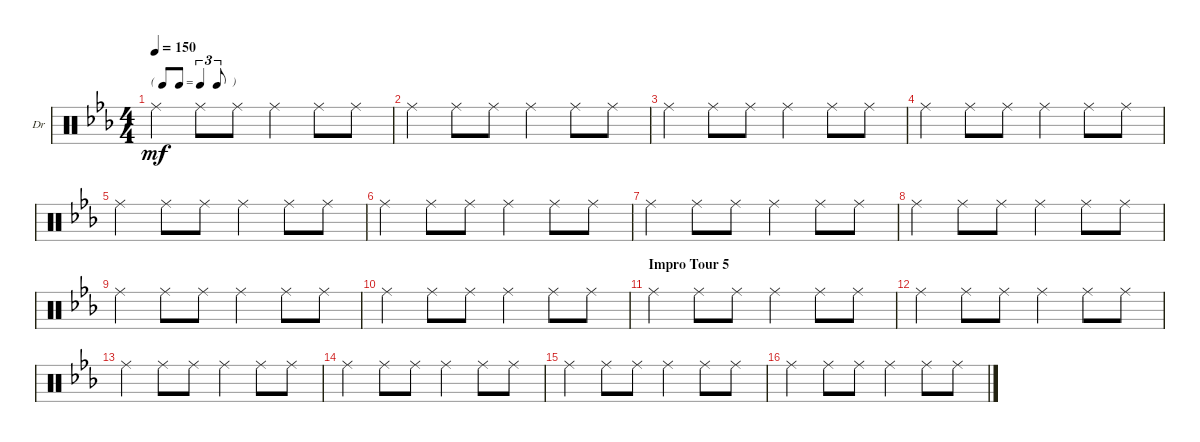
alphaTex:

\defaultSystemsLayout 4
\bracketExtendMode nobrackets
\firstSystemTrackNameOrientation horizontal
\otherSystemsTrackNameOrientation horizontal
\chordDiagramsInScore
\track ("Drums" "Dr") {instrument percussion}
\staff {score}
\articulation defaults
\ts (4 4)
\tf triplet8th
\tempo 150
\clef neutral
\ks cminor "Ride (middle)".4{dy mf} "Ride (middle)".8 "Ride (middle)".8 "Ride (middle)".4 "Ride (middle)".8 "Ride (middle)".8
|
"Ride (middle)".4 "Ride (middle)".8 "Ride (middle)".8 "Ride (middle)".4 "Ride (middle)".8 "Ride (middle)".8 |
"Ride (middle)".4 "Ride (middle)".8 "Ride (middle)".8 "Ride (middle)".4 "Ride (middle)".8 "Ride (middle)".8 |
"Ride (middle)".4 "Ride (middle)".8 "Ride (middle)".8 "Ride (middle)".4 "Ride (middle)".8 "Ride (middle)".8 |
"Ride (middle)".4 "Ride (middle)".8 "Ride (middle)".8 "Ride (middle)".4 "Ride (middle)".8 "Ride (middle)".8 |
"Ride (middle)".4 "Ride (middle)".8 "Ride (middle)".8 "Ride (middle)".4 "Ride (middle)".8 "Ride (middle)".8 |
"Ride (middle)".4 "Ride (middle)".8 "Ride (middle)".8 "Ride (middle)".4 "Ride (middle)".8 "Ride (middle)".8 |
"Ride (middle)".4 "Ride (middle)".8 "Ride (middle)".8 "Ride (middle)".4 "Ride (middle)".8 "Ride (middle)".8 |
"Ride (middle)".4 "Ride (middle)".8 "Ride (middle)".8 "Ride (middle)".4 "Ride (middle)".8 "Ride (middle)".8 |
"Ride (middle)".4 "Ride (middle)".8 "Ride (middle)".8 "Ride (middle)".4 "Ride (middle)".8 "Ride (middle)".8 |
\section ("" "Impro Tour 5")
"Ride (middle)".4 "Ride (middle)".8 "Ride (middle)".8 "Ride (middle)".4 "Ride (middle)".8 "Ride (middle)".8 |
"Ride (middle)".4 "Ride (middle)".8 "Ride (middle)".8 "Ride (middle)".4 "Ride (middle)".8 "Ride (middle)".8 |
"Ride (middle)".4 "Ride (middle)".8 "Ride (middle)".8 "Ride (middle)".4 "Ride (middle)".8 "Ride (middle)".8 |
"Ride (middle)".4 "Ride (middle)".8 "Ride (middle)".8 "Ride (middle)".4 "Ride (middle)".8 "Ride (middle)".8 |
"Ride (middle)".4 "Ride (middle)".8 "Ride (middle)".8 "Ride (middle)".4 "Ride (middle)".8 "Ride (middle)".8 |
"Ride (middle)".4 "Ride (middle)".8 "Ride (middle)".8 "Ride (middle)".4 "Ride (middle)".8 "Ride (middle)".8
